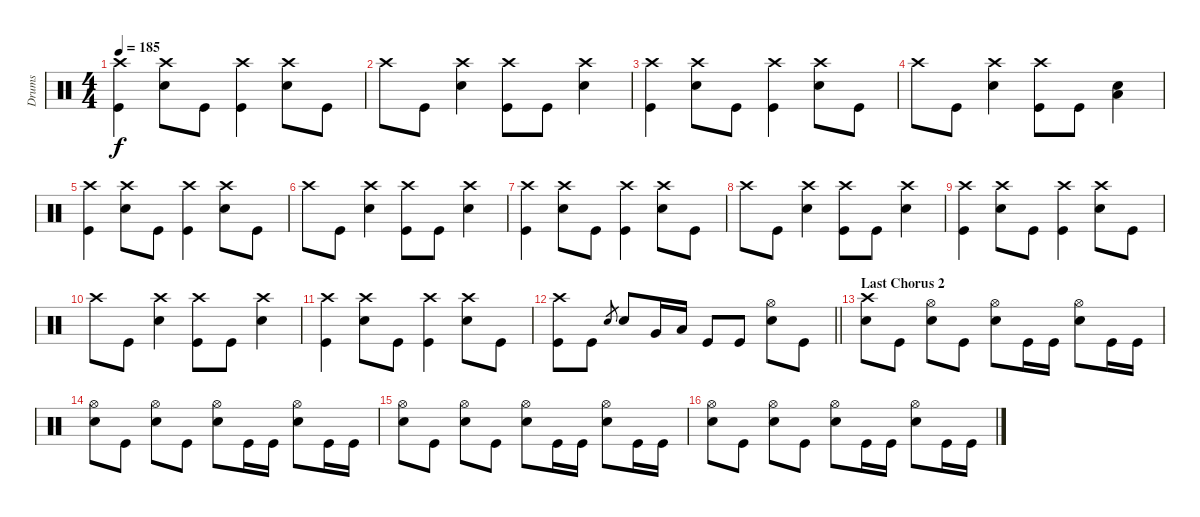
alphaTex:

\track ("Drums" "Drums") {instrument percussion}
\staff {score}
\articulation defaults
\ts (4 4)
\tempo 185
\clef neutral
\ks c
("Crash high (hit)" "Kick (hit)").4{dy f} ("Crash high (hit)" "Snare (hit) 2").8 "Kick (hit)".8 ("Crash high (hit)" "Kick (hit)").4 ("Crash high (hit)" "Snare (hit) 2").8 "Kick (hit)".8 |
"Crash high (hit)".8 "Kick (hit)".8 ("Crash high (hit)" "Snare (hit) 2").4 ("Crash high (hit)" "Kick (hit)").8 "Kick (hit)".8 ("Crash high (hit)" "Snare (hit) 2").4 |
("Crash high (hit)" "Kick (hit)").4 ("Crash high (hit)" "Snare (hit) 2").8 "Kick (hit)".8 ("Crash high (hit)" "Kick (hit)").4 ("Crash high (hit)" "Snare (hit) 2").8 "Kick (hit)".8 |
"Crash high (hit)".8 "Kick (hit)".8 ("Crash high (hit)" "Snare (hit) 2").4 ("Crash high (hit)" "Kick (hit)").8 "Kick (hit)".8 ("Snare (hit) 2" "Low Floor Tom (hit)").4 |
("Crash high (hit)" "Kick (hit)").4 ("Crash high (hit)" "Snare (hit) 2").8 "Kick (hit)".8 ("Crash high (hit)" "Kick (hit)").4 ("Crash high (hit)" "Snare (hit) 2").8 "Kick (hit)".8 |
"Crash high (hit)".8 "Kick (hit)".8 ("Crash high (hit)" "Snare (hit) 2").4 ("Crash high (hit)" "Kick (hit)").8 "Kick (hit)".8 ("Crash high (hit)" "Snare (hit) 2").4 |
("Crash high (hit)" "Kick (hit)").4 ("Crash high (hit)" "Snare (hit) 2").8 "Kick (hit)".8 ("Crash high (hit)" "Kick (hit)").4 ("Crash high (hit)" "Snare (hit) 2").8 "Kick (hit)".8 |
"Crash high (hit)".8 "Kick (hit)".8 ("Crash high (hit)" "Snare (hit) 2").4 ("Crash high (hit)" "Kick (hit)").8 "Kick (hit)".8 ("Crash high (hit)" "Snare (hit) 2").4 |
("Crash high (hit)" "Kick (hit)").4 ("Crash high (hit)" "Snare (hit) 2").8 "Kick (hit)".8 ("Crash high (hit)" "Kick (hit)").4 ("Crash high (hit)" "Snare (hit) 2").8 "Kick (hit)".8 |
"Crash high (hit)".8 "Kick (hit)".8 ("Crash high (hit)" "Snare (hit) 2").4 ("Crash high (hit)" "Kick (hit)").8 "Kick (hit)".8 ("Crash high (hit)" "Snare (hit) 2").4 |
("Crash high (hit)" "Kick (hit)").4 ("Crash high (hit)" "Snare (hit) 2").8 "Kick (hit)".8 ("Crash high (hit)" "Kick (hit)").4 ("Crash high (hit)" "Snare (hit) 2").8 "Kick (hit)".8 |
\barLineRight lightlight
("Crash high (hit)" "Kick (hit)").8 "Kick (hit)".8 "Snare (hit) 2".8{gr} "Snare (hit) 2".8 "Very Low Tom (hit)".16 "Low Floor Tom (hit)".16 "Kick (hit)".8 "Kick (hit)".8 ("Hi-Hat (open)" "Snare (hit) 2").8 "Kick (hit)".8 |
\section ("" "Last Chorus 2")
("Crash high (hit)" "Snare (hit) 2").8 "Kick (hit)".8 ("Hi-Hat (open)" "Snare (hit) 2").8 "Kick (hit)".8 ("Hi-Hat (open)" "Snare (hit) 2").8 "Kick (hit)".16 "Kick (hit)".16 ("Hi-Hat (open)" "Snare (hit) 2").8 "Kick (hit)".16 "Kick (hit)".16 |
("Hi-Hat (open)" "Snare (hit) 2").8 "Kick (hit)".8 ("Hi-Hat (open)" "Snare (hit) 2").8 "Kick (hit)".8 ("Hi-Hat (open)" "Snare (hit) 2").8 "Kick (hit)".16 "Kick (hit)".16 ("Hi-Hat (open)" "Snare (hit) 2").8 "Kick (hit)".16 "Kick (hit)".16 |
("Hi-Hat (open)" "Snare (hit) 2").8 "Kick (hit)".8 ("Hi-Hat (open)" "Snare (hit) 2").8 "Kick (hit)".8 ("Hi-Hat (open)" "Snare (hit) 2").8 "Kick (hit)".16 "Kick (hit)".16 ("Hi-Hat (open)" "Snare (hit) 2").8 "Kick (hit)".16 "Kick (hit)".16 |
("Hi-Hat (open)" "Snare (hit) 2").8 "Kick (hit)".8 ("Hi-Hat (open)" "Snare (hit) 2").8 "Kick (hit)".8 ("Hi-Hat (open)" "Snare (hit) 2").8 "Kick (hit)".16 "Kick (hit)".16 ("Hi-Hat (open)" "Snare (hit) 2").8 "Kick (hit)".16 "Kick (hit)".16
